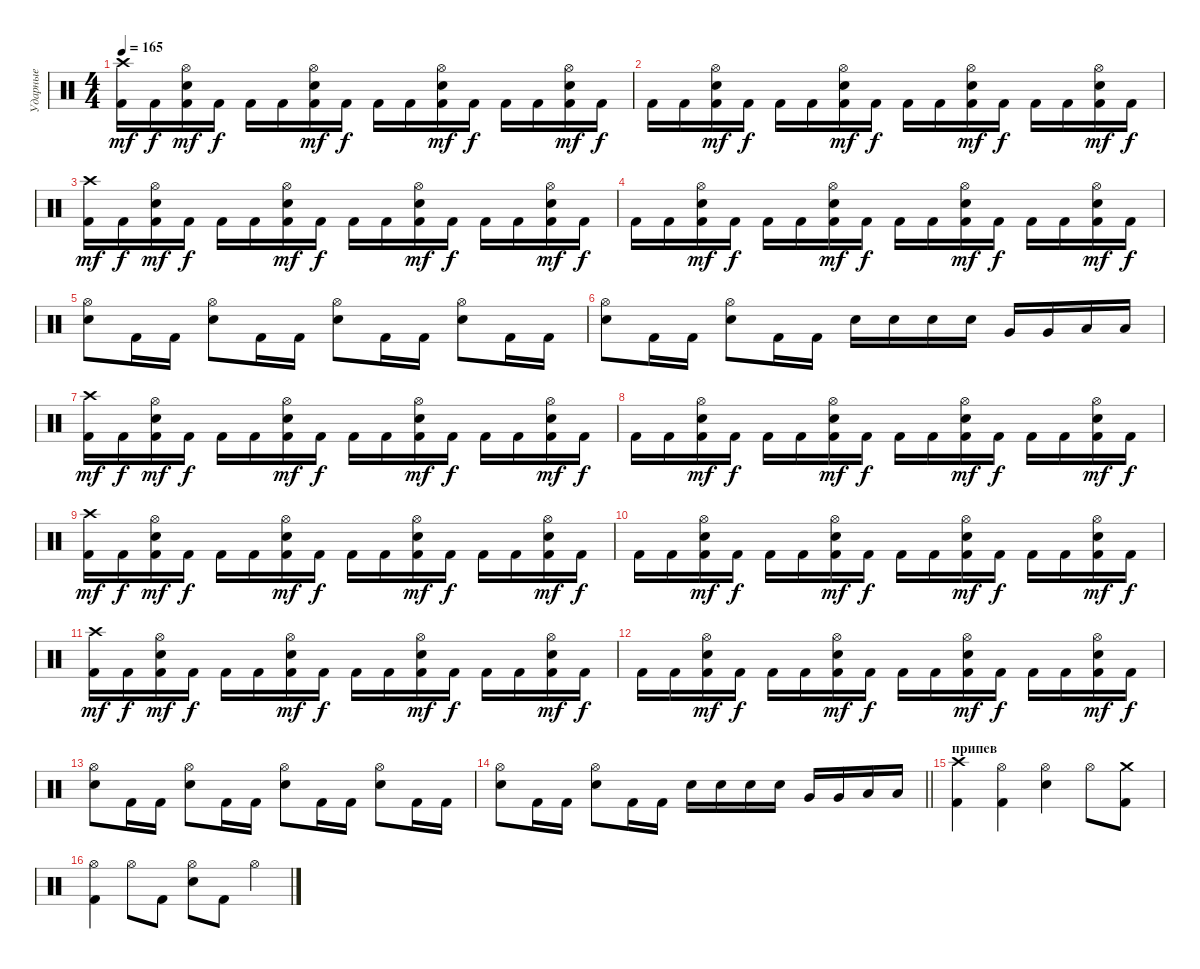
\track ("Ударные" "Ударные") {instrument percussion}
\staff {score}
\articulation defaults
\ts (4 4)
\tempo 165
\clef neutral
\ks c
("Kick (hit) 2" "Crash high (hit)").16{dy mf} "Kick (hit) 2".16{dy f} ("Kick (hit) 2" "Electric Snare (hit)" "Hi-Hat (open)").16{dy mf} "Kick (hit) 2".16{dy f} "Kick (hit) 2".16 "Kick (hit) 2".16 ("Kick (hit) 2" "Electric Snare (hit)" "Hi-Hat (open)").16{dy mf} "Kick (hit) 2".16{dy f} "Kick (hit) 2".16 "Kick (hit) 2".16 ("Kick (hit) 2" "Electric Snare (hit)" "Hi-Hat (open)").16{dy mf} "Kick (hit) 2".16{dy f} "Kick (hit) 2".16 "Kick (hit) 2".16 ("Kick (hit) 2" "Electric Snare (hit)" "Hi-Hat (open)").16{dy mf} "Kick (hit) 2".16{dy f} |
"Kick (hit) 2".16 "Kick (hit) 2".16 ("Kick (hit) 2" "Electric Snare (hit)" "Hi-Hat (open)").16{dy mf} "Kick (hit) 2".16{dy f} "Kick (hit) 2".16 "Kick (hit) 2".16 ("Kick (hit) 2" "Electric Snare (hit)" "Hi-Hat (open)").16{dy mf} "Kick (hit) 2".16{dy f} "Kick (hit) 2".16 "Kick (hit) 2".16 ("Kick (hit) 2" "Electric Snare (hit)" "Hi-Hat (open)").16{dy mf} "Kick (hit) 2".16{dy f} "Kick (hit) 2".16 "Kick (hit) 2".16 ("Kick (hit) 2" "Electric Snare (hit)" "Hi-Hat (open)").16{dy mf} "Kick (hit) 2".16{dy f} |
("Kick (hit) 2" "Crash high (hit)").16{dy mf} "Kick (hit) 2".16{dy f} ("Kick (hit) 2" "Electric Snare (hit)" "Hi-Hat (open)").16{dy mf} "Kick (hit) 2".16{dy f} "Kick (hit) 2".16 "Kick (hit) 2".16 ("Kick (hit) 2" "Electric Snare (hit)" "Hi-Hat (open)").16{dy mf} "Kick (hit) 2".16{dy f} "Kick (hit) 2".16 "Kick (hit) 2".16 ("Kick (hit) 2" "Electric Snare (hit)" "Hi-Hat (open)").16{dy mf} "Kick (hit) 2".16{dy f} "Kick (hit) 2".16 "Kick (hit) 2".16 ("Kick (hit) 2" "Electric Snare (hit)" "Hi-Hat (open)").16{dy mf} "Kick (hit) 2".16{dy f} |
"Kick (hit) 2".16 "Kick (hit) 2".16 ("Kick (hit) 2" "Electric Snare (hit)" "Hi-Hat (open)").16{dy mf} "Kick (hit) 2".16{dy f} "Kick (hit) 2".16 "Kick (hit) 2".16 ("Kick (hit) 2" "Electric Snare (hit)" "Hi-Hat (open)").16{dy mf} "Kick (hit) 2".16{dy f} "Kick (hit) 2".16 "Kick (hit) 2".16 ("Kick (hit) 2" "Electric Snare (hit)" "Hi-Hat (open)").16{dy mf} "Kick (hit) 2".16{dy f} "Kick (hit) 2".16 "Kick (hit) 2".16 ("Kick (hit) 2" "Electric Snare (hit)" "Hi-Hat (open)").16{dy mf} "Kick (hit) 2".16{dy f} |
("Electric Snare (hit)" "Hi-Hat (open)").8 "Kick (hit) 2".16 "Kick (hit) 2".16 ("Electric Snare (hit)" "Hi-Hat (open)").8 "Kick (hit) 2".16 "Kick (hit) 2".16 ("Electric Snare (hit)" "Hi-Hat (open)").8 "Kick (hit) 2".16 "Kick (hit) 2".16 ("Electric Snare (hit)" "Hi-Hat (open)").8 "Kick (hit) 2".16 "Kick (hit) 2".16 |
("Electric Snare (hit)" "Hi-Hat (open)").8 "Kick (hit) 2".16 "Kick (hit) 2".16 ("Electric Snare (hit)" "Hi-Hat (open)").8 "Kick (hit) 2".16 "Kick (hit) 2".16 "Electric Snare (hit)".16 "Electric Snare (hit)".16 "Electric Snare (hit)".16 "Electric Snare (hit)".16 "Very Low Tom (hit)".16 "Very Low Tom (hit)".16 "Low Floor Tom (hit)".16 "Low Floor Tom (hit)".16 |
("Kick (hit) 2" "Crash high (hit)").16{dy mf} "Kick (hit) 2".16{dy f} ("Kick (hit) 2" "Electric Snare (hit)" "Hi-Hat (open)").16{dy mf} "Kick (hit) 2".16{dy f} "Kick (hit) 2".16 "Kick (hit) 2".16 ("Kick (hit) 2" "Electric Snare (hit)" "Hi-Hat (open)").16{dy mf} "Kick (hit) 2".16{dy f} "Kick (hit) 2".16 "Kick (hit) 2".16 ("Kick (hit) 2" "Electric Snare (hit)" "Hi-Hat (open)").16{dy mf} "Kick (hit) 2".16{dy f} "Kick (hit) 2".16 "Kick (hit) 2".16 ("Kick (hit) 2" "Electric Snare (hit)" "Hi-Hat (open)").16{dy mf} "Kick (hit) 2".16{dy f} |
"Kick (hit) 2".16 "Kick (hit) 2".16 ("Kick (hit) 2" "Electric Snare (hit)" "Hi-Hat (open)").16{dy mf} "Kick (hit) 2".16{dy f} "Kick (hit) 2".16 "Kick (hit) 2".16 ("Kick (hit) 2" "Electric Snare (hit)" "Hi-Hat (open)").16{dy mf} "Kick (hit) 2".16{dy f} "Kick (hit) 2".16 "Kick (hit) 2".16 ("Kick (hit) 2" "Electric Snare (hit)" "Hi-Hat (open)").16{dy mf} "Kick (hit) 2".16{dy f} "Kick (hit) 2".16 "Kick (hit) 2".16 ("Kick (hit) 2" "Electric Snare (hit)" "Hi-Hat (open)").16{dy mf} "Kick (hit) 2".16{dy f} |
("Kick (hit) 2" "Crash high (hit)").16{dy mf} "Kick (hit) 2".16{dy f} ("Kick (hit) 2" "Electric Snare (hit)" "Hi-Hat (open)").16{dy mf} "Kick (hit) 2".16{dy f} "Kick (hit) 2".16 "Kick (hit) 2".16 ("Kick (hit) 2" "Electric Snare (hit)" "Hi-Hat (open)").16{dy mf} "Kick (hit) 2".16{dy f} "Kick (hit) 2".16 "Kick (hit) 2".16 ("Kick (hit) 2" "Electric Snare (hit)" "Hi-Hat (open)").16{dy mf} "Kick (hit) 2".16{dy f} "Kick (hit) 2".16 "Kick (hit) 2".16 ("Kick (hit) 2" "Electric Snare (hit)" "Hi-Hat (open)").16{dy mf} "Kick (hit) 2".16{dy f} |
"Kick (hit) 2".16 "Kick (hit) 2".16 ("Kick (hit) 2" "Electric Snare (hit)" "Hi-Hat (open)").16{dy mf} "Kick (hit) 2".16{dy f} "Kick (hit) 2".16 "Kick (hit) 2".16 ("Kick (hit) 2" "Electric Snare (hit)" "Hi-Hat (open)").16{dy mf} "Kick (hit) 2".16{dy f} "Kick (hit) 2".16 "Kick (hit) 2".16 ("Kick (hit) 2" "Electric Snare (hit)" "Hi-Hat (open)").16{dy mf} "Kick (hit) 2".16{dy f} "Kick (hit) 2".16 "Kick (hit) 2".16 ("Kick (hit) 2" "Electric Snare (hit)" "Hi-Hat (open)").16{dy mf} "Kick (hit) 2".16{dy f} |
("Kick (hit) 2" "Crash high (hit)").16{dy mf} "Kick (hit) 2".16{dy f} ("Kick (hit) 2" "Electric Snare (hit)" "Hi-Hat (open)").16{dy mf} "Kick (hit) 2".16{dy f} "Kick (hit) 2".16 "Kick (hit) 2".16 ("Kick (hit) 2" "Electric Snare (hit)" "Hi-Hat (open)").16{dy mf} "Kick (hit) 2".16{dy f} "Kick (hit) 2".16 "Kick (hit) 2".16 ("Kick (hit) 2" "Electric Snare (hit)" "Hi-Hat (open)").16{dy mf} "Kick (hit) 2".16{dy f} "Kick (hit) 2".16 "Kick (hit) 2".16 ("Kick (hit) 2" "Electric Snare (hit)" "Hi-Hat (open)").16{dy mf} "Kick (hit) 2".16{dy f} |
"Kick (hit) 2".16 "Kick (hit) 2".16 ("Kick (hit) 2" "Electric Snare (hit)" "Hi-Hat (open)").16{dy mf} "Kick (hit) 2".16{dy f} "Kick (hit) 2".16 "Kick (hit) 2".16 ("Kick (hit) 2" "Electric Snare (hit)" "Hi-Hat (open)").16{dy mf} "Kick (hit) 2".16{dy f} "Kick (hit) 2".16 "Kick (hit) 2".16 ("Kick (hit) 2" "Electric Snare (hit)" "Hi-Hat (open)").16{dy mf} "Kick (hit) 2".16{dy f} "Kick (hit) 2".16 "Kick (hit) 2".16 ("Kick (hit) 2" "Electric Snare (hit)" "Hi-Hat (open)").16{dy mf} "Kick (hit) 2".16{dy f} |
("Electric Snare (hit)" "Hi-Hat (open)").8 "Kick (hit) 2".16 "Kick (hit) 2".16 ("Electric Snare (hit)" "Hi-Hat (open)").8 "Kick (hit) 2".16 "Kick (hit) 2".16 ("Electric Snare (hit)" "Hi-Hat (open)").8 "Kick (hit) 2".16 "Kick (hit) 2".16 ("Electric Snare (hit)" "Hi-Hat (open)").8 "Kick (hit) 2".16 "Kick (hit) 2".16 |
\barLineRight lightlight
("Electric Snare (hit)" "Hi-Hat (open)").8 "Kick (hit) 2".16 "Kick (hit) 2".16 ("Electric Snare (hit)" "Hi-Hat (open)").8 "Kick (hit) 2".16 "Kick (hit) 2".16 "Electric Snare (hit)".16 "Electric Snare (hit)".16 "Electric Snare (hit)".16 "Electric Snare (hit)".16 "Very Low Tom (hit)".16 "Very Low Tom (hit)".16 "Low Floor Tom (hit)".16 "Low Floor Tom (hit)".16 |
\section ("" "припев")
("Kick (hit) 2" "Crash high (hit)").4 ("Kick (hit) 2" "Hi-Hat (open)").4 ("Electric Snare (hit)" "Hi-Hat (open)").4 "Hi-Hat (open)".8 ("Kick (hit) 2" "Crash medium (hit)").8 |
("Kick (hit) 2" "Hi-Hat (open)").4 "Hi-Hat (open)".8 "Kick (hit) 2".8 ("Electric Snare (hit)" "Hi-Hat (open)").8 "Kick (hit) 2".8 "Hi-Hat (open)".4
